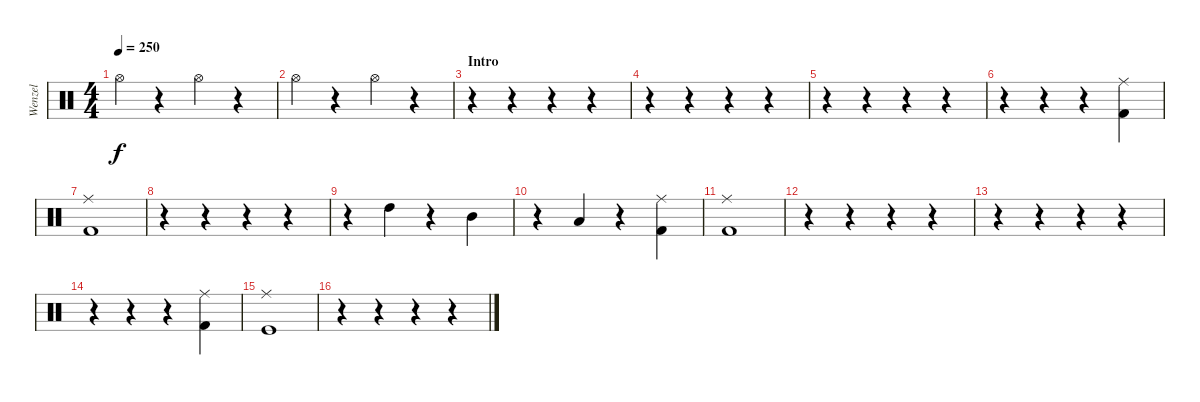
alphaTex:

\track ("Wenzel" "Wenzel") {instrument percussion}
\staff {score}
\articulation defaults
\ts (4 4)
\tempo 250
\clef neutral
\ks c "Hi-Hat (open)".4{dy f}
r.4 "Hi-Hat (open)".4 r.4 |
"Hi-Hat (open)".4 r.4 "Hi-Hat (open)".4 r.4 |
\section ("" "Intro")
r.4 r.4 r.4 r.4 |
r.4 r.4 r.4 r.4 |
r.4 r.4 r.4 r.4 |
r.4 r.4 r.4 ("Ride (middle)" "Kick (hit) 2").4 |
("Ride (middle)" "Kick (hit) 2").1 |
r.4 r.4 r.4 r.4 |
r.4 "High Tom (hit)".4 r.4 "Mid Tom (hit)".4 |
r.4 "Low Tom (hit)".4 r.4 ("Ride (middle)" "Kick (hit) 2").4 |
("Ride (middle)" "Kick (hit) 2").1 |
r.4 r.4 r.4 r.4 |
r.4 r.4 r.4 r.4 |
r.4 r.4 r.4 ("Ride (middle)" "Kick (hit) 2").4 |
("Ride (middle)" "Kick (hit)").1 |
r.4 r.4 r.4 r.4
